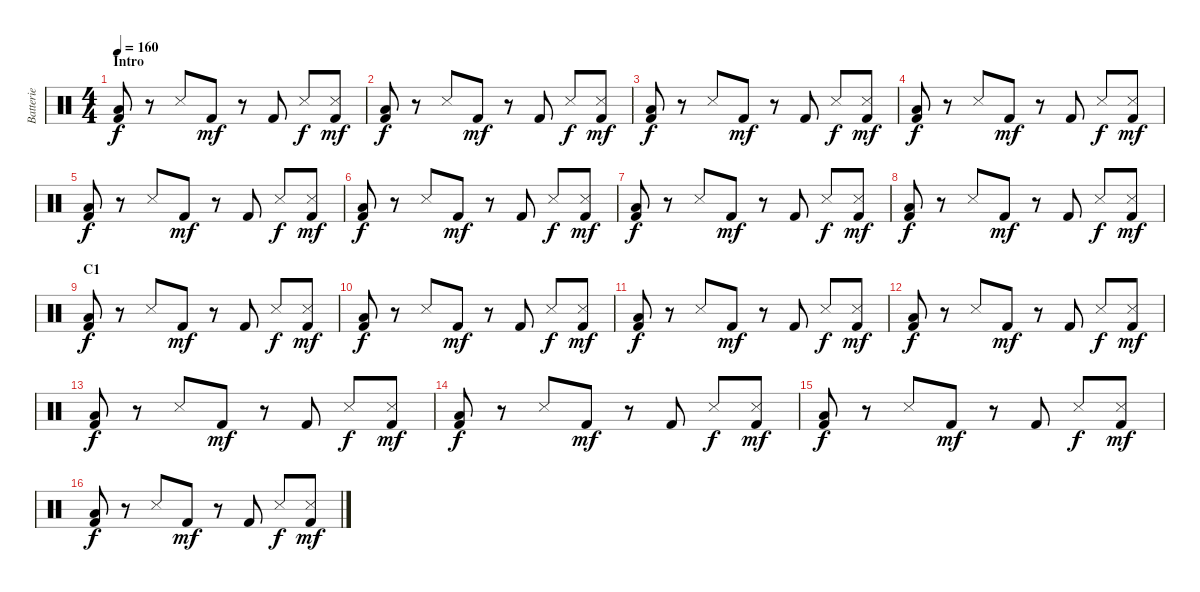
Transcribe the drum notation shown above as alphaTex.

\track ("Batterie" "Batterie") {instrument percussion}
\staff {score}
\articulation defaults
\ts (4 4)
\section ("" "Intro")
\tempo 160
\clef neutral
\ks c
("Low Floor Tom (hit)" "Kick (hit) 2").8{dy f} r.8 "Snare (side stick) 3".8 "Kick (hit) 2".8{dy mf} r.8 "Kick (hit) 2".8 "Snare (side stick) 3".8{dy f} ("Metronome (hit)" "Kick (hit) 2").8{dy mf} |
("Low Floor Tom (hit)" "Kick (hit) 2").8{dy f} r.8 "Snare (side stick) 3".8 "Kick (hit) 2".8{dy mf} r.8 "Kick (hit) 2".8 "Snare (side stick) 3".8{dy f} ("Metronome (hit)" "Kick (hit) 2").8{dy mf} |
("Low Floor Tom (hit)" "Kick (hit) 2").8{dy f} r.8 "Snare (side stick) 3".8 "Kick (hit) 2".8{dy mf} r.8 "Kick (hit) 2".8 "Snare (side stick) 3".8{dy f} ("Metronome (hit)" "Kick (hit) 2").8{dy mf} |
("Low Floor Tom (hit)" "Kick (hit) 2").8{dy f} r.8 "Snare (side stick) 3".8 "Kick (hit) 2".8{dy mf} r.8 "Kick (hit) 2".8 "Snare (side stick) 3".8{dy f} ("Metronome (hit)" "Kick (hit) 2").8{dy mf} |
("Low Floor Tom (hit)" "Kick (hit) 2").8{dy f} r.8 "Snare (side stick) 3".8 "Kick (hit) 2".8{dy mf} r.8 "Kick (hit) 2".8 "Snare (side stick) 3".8{dy f} ("Metronome (hit)" "Kick (hit) 2").8{dy mf} |
("Low Floor Tom (hit)" "Kick (hit) 2").8{dy f} r.8 "Snare (side stick) 3".8 "Kick (hit) 2".8{dy mf} r.8 "Kick (hit) 2".8 "Snare (side stick) 3".8{dy f} ("Metronome (hit)" "Kick (hit) 2").8{dy mf} |
("Low Floor Tom (hit)" "Kick (hit) 2").8{dy f} r.8 "Snare (side stick) 3".8 "Kick (hit) 2".8{dy mf} r.8 "Kick (hit) 2".8 "Snare (side stick) 3".8{dy f} ("Metronome (hit)" "Kick (hit) 2").8{dy mf} |
("Low Floor Tom (hit)" "Kick (hit) 2").8{dy f} r.8 "Snare (side stick) 3".8 "Kick (hit) 2".8{dy mf} r.8 "Kick (hit) 2".8 "Snare (side stick) 3".8{dy f} ("Metronome (hit)" "Kick (hit) 2").8{dy mf} |
\section ("" "C1")
("Low Floor Tom (hit)" "Kick (hit) 2").8{dy f} r.8 "Snare (side stick) 3".8 "Kick (hit) 2".8{dy mf} r.8 "Kick (hit) 2".8 "Snare (side stick) 3".8{dy f} ("Metronome (hit)" "Kick (hit) 2").8{dy mf} |
("Low Floor Tom (hit)" "Kick (hit) 2").8{dy f} r.8 "Snare (side stick) 3".8 "Kick (hit) 2".8{dy mf} r.8 "Kick (hit) 2".8 "Snare (side stick) 3".8{dy f} ("Metronome (hit)" "Kick (hit) 2").8{dy mf} |
("Low Floor Tom (hit)" "Kick (hit) 2").8{dy f} r.8 "Snare (side stick) 3".8 "Kick (hit) 2".8{dy mf} r.8 "Kick (hit) 2".8 "Snare (side stick) 3".8{dy f} ("Metronome (hit)" "Kick (hit) 2").8{dy mf} |
("Low Floor Tom (hit)" "Kick (hit) 2").8{dy f} r.8 "Snare (side stick) 3".8 "Kick (hit) 2".8{dy mf} r.8 "Kick (hit) 2".8 "Snare (side stick) 3".8{dy f} ("Metronome (hit)" "Kick (hit) 2").8{dy mf} |
("Low Floor Tom (hit)" "Kick (hit) 2").8{dy f} r.8 "Snare (side stick) 3".8 "Kick (hit) 2".8{dy mf} r.8 "Kick (hit) 2".8 "Snare (side stick) 3".8{dy f} ("Metronome (hit)" "Kick (hit) 2").8{dy mf} |
("Low Floor Tom (hit)" "Kick (hit) 2").8{dy f} r.8 "Snare (side stick) 3".8 "Kick (hit) 2".8{dy mf} r.8 "Kick (hit) 2".8 "Snare (side stick) 3".8{dy f} ("Metronome (hit)" "Kick (hit) 2").8{dy mf} |
("Low Floor Tom (hit)" "Kick (hit) 2").8{dy f} r.8 "Snare (side stick) 3".8 "Kick (hit) 2".8{dy mf} r.8 "Kick (hit) 2".8 "Snare (side stick) 3".8{dy f} ("Metronome (hit)" "Kick (hit) 2").8{dy mf} |
("Low Floor Tom (hit)" "Kick (hit) 2").8{dy f} r.8 "Snare (side stick) 3".8 "Kick (hit) 2".8{dy mf} r.8 "Kick (hit) 2".8 "Snare (side stick) 3".8{dy f} ("Metronome (hit)" "Kick (hit) 2").8{dy mf}
